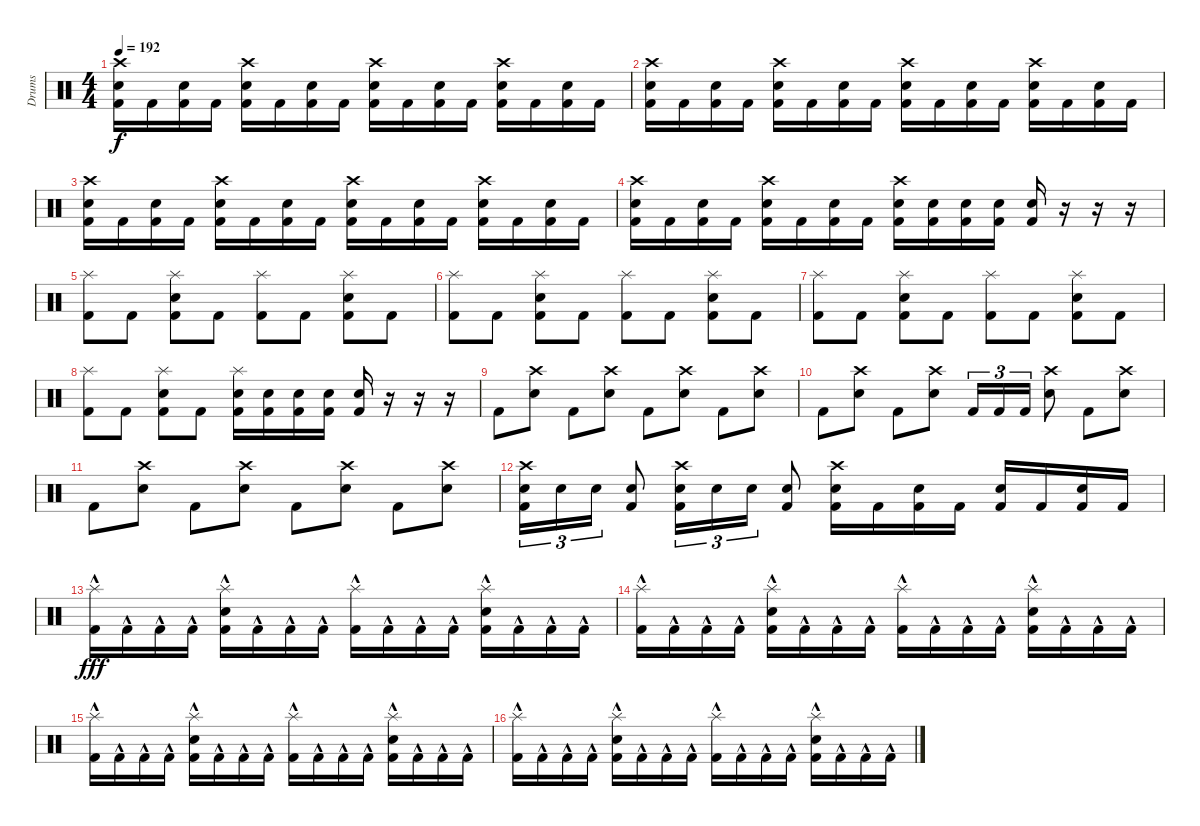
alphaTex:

\track ("Drums" "Drums") {instrument percussion}
\staff {score}
\articulation defaults
\ts (4 4)
\tempo 192
\clef neutral
\ks c
("Crash high (hit)" "Kick (hit) 2" "Electric Snare (hit)").16{dy f} "Kick (hit) 2".16 ("Kick (hit) 2" "Electric Snare (hit)").16 "Kick (hit) 2".16 ("Crash high (hit)" "Kick (hit) 2" "Electric Snare (hit)").16 "Kick (hit) 2".16 ("Kick (hit) 2" "Electric Snare (hit)").16 "Kick (hit) 2".16 ("Crash high (hit)" "Kick (hit) 2" "Electric Snare (hit)").16 "Kick (hit) 2".16 ("Kick (hit) 2" "Electric Snare (hit)").16 "Kick (hit) 2".16 ("Crash high (hit)" "Kick (hit) 2" "Electric Snare (hit)").16 "Kick (hit) 2".16 ("Kick (hit) 2" "Electric Snare (hit)").16 "Kick (hit) 2".16 |
("Crash high (hit)" "Kick (hit) 2" "Electric Snare (hit)").16 "Kick (hit) 2".16 ("Kick (hit) 2" "Electric Snare (hit)").16 "Kick (hit) 2".16 ("Crash high (hit)" "Kick (hit) 2" "Electric Snare (hit)").16 "Kick (hit) 2".16 ("Kick (hit) 2" "Electric Snare (hit)").16 "Kick (hit) 2".16 ("Crash high (hit)" "Kick (hit) 2" "Electric Snare (hit)").16 "Kick (hit) 2".16 ("Kick (hit) 2" "Electric Snare (hit)").16 "Kick (hit) 2".16 ("Crash high (hit)" "Kick (hit) 2" "Electric Snare (hit)").16 "Kick (hit) 2".16 ("Kick (hit) 2" "Electric Snare (hit)").16 "Kick (hit) 2".16 |
("Crash high (hit)" "Kick (hit) 2" "Electric Snare (hit)").16 "Kick (hit) 2".16 ("Kick (hit) 2" "Electric Snare (hit)").16 "Kick (hit) 2".16 ("Crash high (hit)" "Kick (hit) 2" "Electric Snare (hit)").16 "Kick (hit) 2".16 ("Kick (hit) 2" "Electric Snare (hit)").16 "Kick (hit) 2".16 ("Crash high (hit)" "Kick (hit) 2" "Electric Snare (hit)").16 "Kick (hit) 2".16 ("Kick (hit) 2" "Electric Snare (hit)").16 "Kick (hit) 2".16 ("Crash high (hit)" "Kick (hit) 2" "Electric Snare (hit)").16 "Kick (hit) 2".16 ("Kick (hit) 2" "Electric Snare (hit)").16 "Kick (hit) 2".16 |
("Crash high (hit)" "Kick (hit) 2" "Electric Snare (hit)").16 "Kick (hit) 2".16 ("Kick (hit) 2" "Electric Snare (hit)").16 "Kick (hit) 2".16 ("Crash high (hit)" "Kick (hit) 2" "Electric Snare (hit)").16 "Kick (hit) 2".16 ("Kick (hit) 2" "Electric Snare (hit)").16 "Kick (hit) 2".16 ("Crash high (hit)" "Kick (hit) 2" "Electric Snare (hit)").16 ("Kick (hit) 2" "Electric Snare (hit)").16 ("Kick (hit) 2" "Electric Snare (hit)").16 ("Kick (hit) 2" "Electric Snare (hit)").16 ("Kick (hit) 2" "Electric Snare (hit)").16 r.16 r.16 r.16 |
("Splash (hit)" "Kick (hit) 2").8 "Kick (hit) 2".8 ("Splash (hit)" "Kick (hit) 2" "Electric Snare (hit)").8 "Kick (hit) 2".8 ("Splash (hit)" "Kick (hit) 2").8 "Kick (hit) 2".8 ("Splash (hit)" "Kick (hit) 2" "Electric Snare (hit)").8 "Kick (hit) 2".8 |
("Splash (hit)" "Kick (hit) 2").8 "Kick (hit) 2".8 ("Splash (hit)" "Kick (hit) 2" "Electric Snare (hit)").8 "Kick (hit) 2".8 ("Splash (hit)" "Kick (hit) 2").8 "Kick (hit) 2".8 ("Splash (hit)" "Kick (hit) 2" "Electric Snare (hit)").8 "Kick (hit) 2".8 |
("Splash (hit)" "Kick (hit) 2").8 "Kick (hit) 2".8 ("Splash (hit)" "Kick (hit) 2" "Electric Snare (hit)").8 "Kick (hit) 2".8 ("Splash (hit)" "Kick (hit) 2").8 "Kick (hit) 2".8 ("Splash (hit)" "Kick (hit) 2" "Electric Snare (hit)").8 "Kick (hit) 2".8 |
("Splash (hit)" "Kick (hit) 2").8 "Kick (hit) 2".8 ("Splash (hit)" "Kick (hit) 2" "Electric Snare (hit)").8 "Kick (hit) 2".8 ("Splash (hit)" "Kick (hit) 2" "Electric Snare (hit)").16 ("Kick (hit) 2" "Electric Snare (hit)").16 ("Kick (hit) 2" "Electric Snare (hit)").16 ("Kick (hit) 2" "Electric Snare (hit)").16 ("Kick (hit) 2" "Electric Snare (hit)").16 r.16 r.16 r.16 |
"Kick (hit) 2".8 ("Crash high (hit)" "Electric Snare (hit)").8 "Kick (hit) 2".8 ("Crash high (hit)" "Electric Snare (hit)").8 "Kick (hit) 2".8 ("Crash high (hit)" "Electric Snare (hit)").8 "Kick (hit) 2".8 ("Crash high (hit)" "Electric Snare (hit)").8 |
"Kick (hit) 2".8 ("Crash high (hit)" "Electric Snare (hit)").8 "Kick (hit) 2".8 ("Crash high (hit)" "Electric Snare (hit)").8 "Kick (hit) 2".16{tu (3 2)} "Kick (hit) 2".16{tu (3 2)} "Kick (hit) 2".16{tu (3 2)} ("Crash high (hit)" "Electric Snare (hit)").8 "Kick (hit) 2".8 ("Crash high (hit)" "Electric Snare (hit)").8 |
"Kick (hit) 2".8 ("Crash high (hit)" "Electric Snare (hit)").8 "Kick (hit) 2".8 ("Crash high (hit)" "Electric Snare (hit)").8 "Kick (hit) 2".8 ("Crash high (hit)" "Electric Snare (hit)").8 "Kick (hit) 2".8 ("Crash high (hit)" "Electric Snare (hit)").8 |
("Crash high (hit)" "Kick (hit) 2" "Electric Snare (hit)").16{tu (3 2)} "Electric Snare (hit)".16{tu (3 2)} "Electric Snare (hit)".16{tu (3 2)} ("Kick (hit) 2" "Electric Snare (hit)").8 ("Crash high (hit)" "Kick (hit) 2" "Electric Snare (hit)").16{tu (3 2)} "Electric Snare (hit)".16{tu (3 2)} "Electric Snare (hit)".16{tu (3 2)} ("Kick (hit) 2" "Electric Snare (hit)").8 ("Crash high (hit)" "Kick (hit) 2" "Electric Snare (hit)").16 "Kick (hit) 2".16 ("Kick (hit) 2" "Electric Snare (hit)").16 "Kick (hit) 2".16 ("Kick (hit) 2" "Electric Snare (hit)").16 "Kick (hit) 2".16 ("Kick (hit) 2" "Electric Snare (hit)").16 "Kick (hit) 2".16 |
("Splash (hit)" "Kick (hit) 2"{hac}).16{dy fff} "Kick (hit) 2"{hac}.16 "Kick (hit) 2"{hac}.16 "Kick (hit) 2"{hac}.16 ("Splash (hit)" "Kick (hit) 2"{hac} "Electric Snare (hit)").16 "Kick (hit) 2"{hac}.16 "Kick (hit) 2"{hac}.16 "Kick (hit) 2"{hac}.16 ("Splash (hit)" "Kick (hit) 2"{hac}).16 "Kick (hit) 2"{hac}.16 "Kick (hit) 2"{hac}.16 "Kick (hit) 2"{hac}.16 ("Splash (hit)" "Kick (hit) 2"{hac} "Electric Snare (hit)").16 "Kick (hit) 2"{hac}.16 "Kick (hit) 2"{hac}.16 "Kick (hit) 2"{hac}.16 |
("Splash (hit)" "Kick (hit) 2"{hac}).16 "Kick (hit) 2"{hac}.16 "Kick (hit) 2"{hac}.16 "Kick (hit) 2"{hac}.16 ("Splash (hit)" "Kick (hit) 2"{hac} "Electric Snare (hit)").16 "Kick (hit) 2"{hac}.16 "Kick (hit) 2"{hac}.16 "Kick (hit) 2"{hac}.16 ("Splash (hit)" "Kick (hit) 2"{hac}).16 "Kick (hit) 2"{hac}.16 "Kick (hit) 2"{hac}.16 "Kick (hit) 2"{hac}.16 ("Splash (hit)" "Kick (hit) 2"{hac} "Electric Snare (hit)").16 "Kick (hit) 2"{hac}.16 "Kick (hit) 2"{hac}.16 "Kick (hit) 2"{hac}.16 |
("Splash (hit)" "Kick (hit) 2"{hac}).16 "Kick (hit) 2"{hac}.16 "Kick (hit) 2"{hac}.16 "Kick (hit) 2"{hac}.16 ("Splash (hit)" "Kick (hit) 2"{hac} "Electric Snare (hit)").16 "Kick (hit) 2"{hac}.16 "Kick (hit) 2"{hac}.16 "Kick (hit) 2"{hac}.16 ("Splash (hit)" "Kick (hit) 2"{hac}).16 "Kick (hit) 2"{hac}.16 "Kick (hit) 2"{hac}.16 "Kick (hit) 2"{hac}.16 ("Splash (hit)" "Kick (hit) 2"{hac} "Electric Snare (hit)").16 "Kick (hit) 2"{hac}.16 "Kick (hit) 2"{hac}.16 "Kick (hit) 2"{hac}.16 |
("Splash (hit)" "Kick (hit) 2"{hac}).16 "Kick (hit) 2"{hac}.16 "Kick (hit) 2"{hac}.16 "Kick (hit) 2"{hac}.16 ("Splash (hit)" "Kick (hit) 2"{hac} "Electric Snare (hit)").16 "Kick (hit) 2"{hac}.16 "Kick (hit) 2"{hac}.16 "Kick (hit) 2"{hac}.16 ("Splash (hit)" "Kick (hit) 2"{hac}).16 "Kick (hit) 2"{hac}.16 "Kick (hit) 2"{hac}.16 "Kick (hit) 2"{hac}.16 ("Splash (hit)" "Kick (hit) 2"{hac} "Electric Snare (hit)").16 "Kick (hit) 2"{hac}.16 "Kick (hit) 2"{hac}.16 "Kick (hit) 2"{hac}.16
